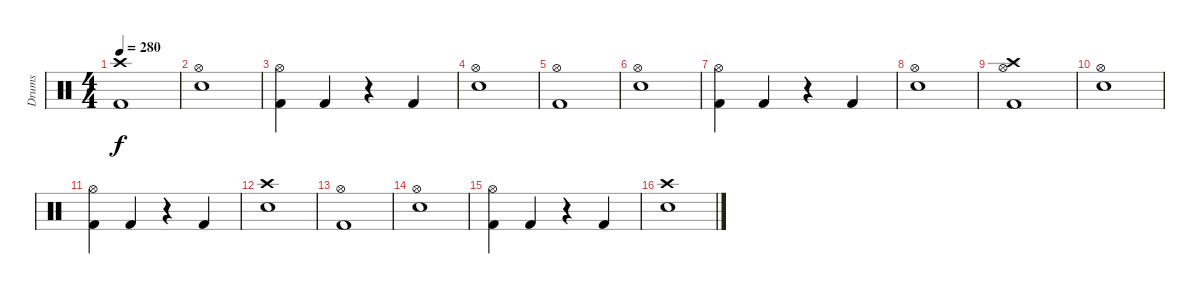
\track ("Drums" "Drums") {instrument percussion}
\staff {score}
\articulation defaults
\ts (4 4)
\tempo 280
\clef neutral
\ks c
("Crash high (hit)" "Kick (hit) 2").1{dy f} |
("Hi-Hat (open)" "Electric Snare (hit)").1 |
("Hi-Hat (open)" "Kick (hit) 2").4 "Kick (hit) 2".4 r.4 "Kick (hit) 2".4 |
("Hi-Hat (open)" "Electric Snare (hit)").1 |
("Hi-Hat (open)" "Kick (hit) 2").1 |
("Hi-Hat (open)" "Electric Snare (hit)").1 |
("Hi-Hat (open)" "Kick (hit) 2").4 "Kick (hit) 2".4 r.4 "Kick (hit) 2".4 |
("Hi-Hat (open)" "Electric Snare (hit)").1 |
("Hi-Hat (open)" "Crash high (hit)" "Kick (hit) 2").1 |
("Hi-Hat (open)" "Electric Snare (hit)").1 |
("Hi-Hat (open)" "Kick (hit) 2").4 "Kick (hit) 2".4 r.4 "Kick (hit) 2".4 |
("Crash high (hit)" "Electric Snare (hit)").1 |
("Hi-Hat (open)" "Kick (hit) 2").1 |
("Hi-Hat (open)" "Electric Snare (hit)").1 |
("Hi-Hat (open)" "Kick (hit) 2").4 "Kick (hit) 2".4 r.4 "Kick (hit) 2".4 |
("Crash high (hit)" "Electric Snare (hit)").1
